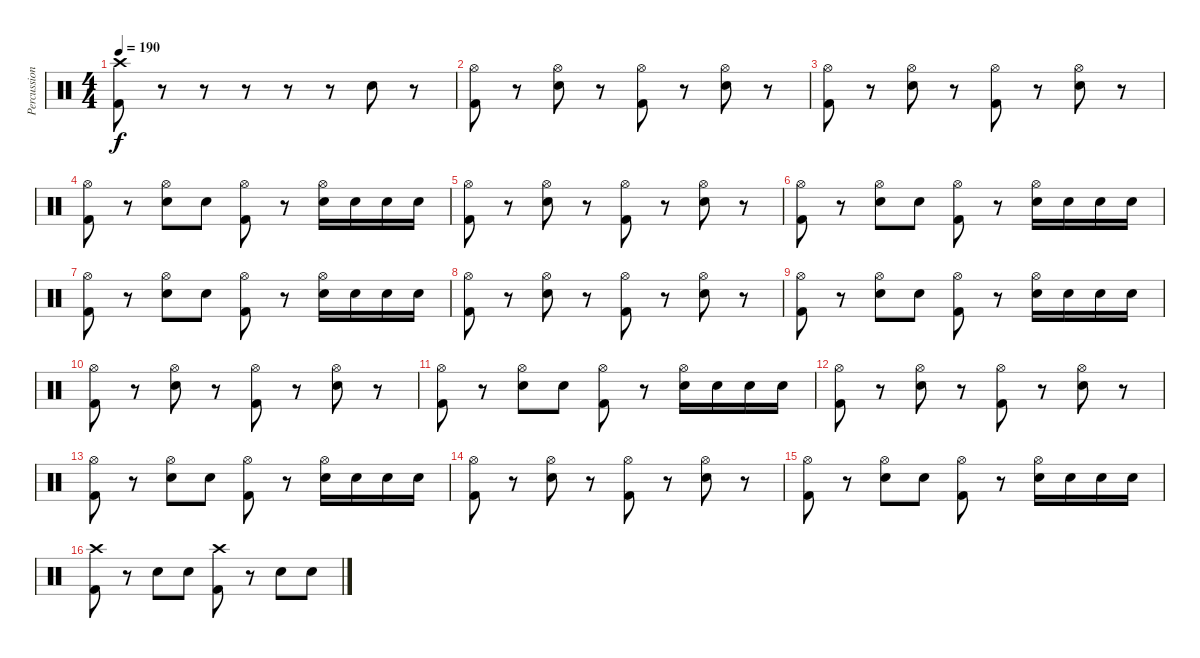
\track ("Percussioni" "Percussion") {instrument percussion}
\staff {score}
\articulation defaults
\ts (4 4)
\tempo 190
\clef neutral
\ks c
("Crash high (hit)" "Kick (hit) 2").8{dy f} r.8 r.8 r.8 r.8 r.8 "Electric Snare (hit)".8 r.8 |
("Kick (hit) 2" "Hi-Hat (open)").8 r.8 ("Electric Snare (hit)" "Hi-Hat (open)").8 r.8 ("Kick (hit) 2" "Hi-Hat (open)").8 r.8 ("Electric Snare (hit)" "Hi-Hat (open)").8 r.8 |
("Kick (hit) 2" "Hi-Hat (open)").8 r.8 ("Electric Snare (hit)" "Hi-Hat (open)").8 r.8 ("Kick (hit) 2" "Hi-Hat (open)").8 r.8 ("Electric Snare (hit)" "Hi-Hat (open)").8 r.8 |
("Kick (hit) 2" "Hi-Hat (open)").8 r.8 ("Electric Snare (hit)" "Hi-Hat (open)").8 "Electric Snare (hit)".8 ("Kick (hit) 2" "Hi-Hat (open)").8 r.8 ("Electric Snare (hit)" "Hi-Hat (open)").16 "Electric Snare (hit)".16 "Electric Snare (hit)".16 "Electric Snare (hit)".16 |
("Kick (hit) 2" "Hi-Hat (open)").8 r.8 ("Electric Snare (hit)" "Hi-Hat (open)").8 r.8 ("Kick (hit) 2" "Hi-Hat (open)").8 r.8 ("Electric Snare (hit)" "Hi-Hat (open)").8 r.8 |
("Kick (hit) 2" "Hi-Hat (open)").8 r.8 ("Electric Snare (hit)" "Hi-Hat (open)").8 "Electric Snare (hit)".8 ("Kick (hit) 2" "Hi-Hat (open)").8 r.8 ("Electric Snare (hit)" "Hi-Hat (open)").16 "Electric Snare (hit)".16 "Electric Snare (hit)".16 "Electric Snare (hit)".16 |
("Kick (hit) 2" "Hi-Hat (open)").8 r.8 ("Electric Snare (hit)" "Hi-Hat (open)").8 "Electric Snare (hit)".8 ("Kick (hit) 2" "Hi-Hat (open)").8 r.8 ("Electric Snare (hit)" "Hi-Hat (open)").16 "Electric Snare (hit)".16 "Electric Snare (hit)".16 "Electric Snare (hit)".16 |
("Kick (hit) 2" "Hi-Hat (open)").8 r.8 ("Electric Snare (hit)" "Hi-Hat (open)").8 r.8 ("Kick (hit) 2" "Hi-Hat (open)").8 r.8 ("Electric Snare (hit)" "Hi-Hat (open)").8 r.8 |
("Kick (hit) 2" "Hi-Hat (open)").8 r.8 ("Electric Snare (hit)" "Hi-Hat (open)").8 "Electric Snare (hit)".8 ("Kick (hit) 2" "Hi-Hat (open)").8 r.8 ("Electric Snare (hit)" "Hi-Hat (open)").16 "Electric Snare (hit)".16 "Electric Snare (hit)".16 "Electric Snare (hit)".16 |
("Kick (hit) 2" "Hi-Hat (open)").8 r.8 ("Electric Snare (hit)" "Hi-Hat (open)").8 r.8 ("Kick (hit) 2" "Hi-Hat (open)").8 r.8 ("Electric Snare (hit)" "Hi-Hat (open)").8 r.8 |
("Kick (hit) 2" "Hi-Hat (open)").8 r.8 ("Electric Snare (hit)" "Hi-Hat (open)").8 "Electric Snare (hit)".8 ("Kick (hit) 2" "Hi-Hat (open)").8 r.8 ("Electric Snare (hit)" "Hi-Hat (open)").16 "Electric Snare (hit)".16 "Electric Snare (hit)".16 "Electric Snare (hit)".16 |
("Kick (hit) 2" "Hi-Hat (open)").8 r.8 ("Electric Snare (hit)" "Hi-Hat (open)").8 r.8 ("Kick (hit) 2" "Hi-Hat (open)").8 r.8 ("Electric Snare (hit)" "Hi-Hat (open)").8 r.8 |
("Kick (hit) 2" "Hi-Hat (open)").8 r.8 ("Electric Snare (hit)" "Hi-Hat (open)").8 "Electric Snare (hit)".8 ("Kick (hit) 2" "Hi-Hat (open)").8 r.8 ("Electric Snare (hit)" "Hi-Hat (open)").16 "Electric Snare (hit)".16 "Electric Snare (hit)".16 "Electric Snare (hit)".16 |
("Kick (hit) 2" "Hi-Hat (open)").8 r.8 ("Electric Snare (hit)" "Hi-Hat (open)").8 r.8 ("Kick (hit) 2" "Hi-Hat (open)").8 r.8 ("Electric Snare (hit)" "Hi-Hat (open)").8 r.8 |
("Kick (hit) 2" "Hi-Hat (open)").8 r.8 ("Electric Snare (hit)" "Hi-Hat (open)").8 "Electric Snare (hit)".8 ("Kick (hit) 2" "Hi-Hat (open)").8 r.8 ("Electric Snare (hit)" "Hi-Hat (open)").16 "Electric Snare (hit)".16 "Electric Snare (hit)".16 "Electric Snare (hit)".16 |
("Kick (hit) 2" "Crash high (hit)").8 r.8 "Electric Snare (hit)".8 "Electric Snare (hit)".8 ("Kick (hit) 2" "Crash high (hit)").8 r.8 "Electric Snare (hit)".8 "Electric Snare (hit)".8
